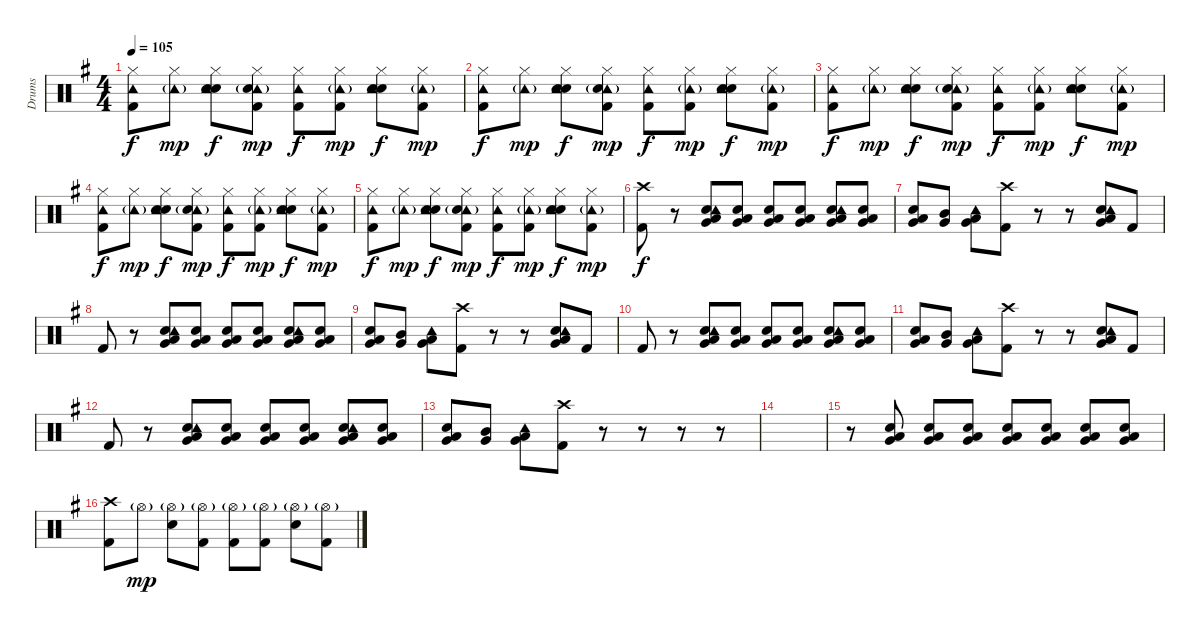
\track ("Drums" "Drums") {instrument percussion}
\staff {score}
\articulation defaults
\ts (4 4)
\tempo 105
\clef neutral
\ks g
("Hi-Hat (closed)" "Kick (hit) 2" "Tambourine (hit)").8{dy f} ("Hi-Hat (closed)" "Tambourine (hit)"{g}).8{dy mp} ("Hi-Hat (closed)" "Snare (hit) 2" "Tambourine (hit)" "Hand Clap (hit)").8{dy f} ("Hi-Hat (closed)" "Kick (hit) 2" "Tambourine (hit)"{g} "Hand Clap (hit)").8{dy mp} ("Hi-Hat (closed)" "Kick (hit) 2" "Tambourine (hit)").8{dy f} ("Hi-Hat (closed)" "Kick (hit) 2" "Tambourine (hit)"{g}).8{dy mp} ("Hi-Hat (closed)" "Snare (hit) 2" "Tambourine (hit)" "Hand Clap (hit)").8{dy f} ("Hi-Hat (closed)" "Kick (hit) 2" "Tambourine (hit)"{g}).8{dy mp} |
("Hi-Hat (closed)" "Kick (hit) 2" "Tambourine (hit)").8{dy f} ("Hi-Hat (closed)" "Tambourine (hit)"{g}).8{dy mp} ("Hi-Hat (closed)" "Snare (hit) 2" "Tambourine (hit)" "Hand Clap (hit)").8{dy f} ("Hi-Hat (closed)" "Kick (hit) 2" "Tambourine (hit)"{g} "Hand Clap (hit)").8{dy mp} ("Hi-Hat (closed)" "Kick (hit) 2" "Tambourine (hit)").8{dy f} ("Hi-Hat (closed)" "Kick (hit) 2" "Tambourine (hit)"{g}).8{dy mp} ("Hi-Hat (closed)" "Snare (hit) 2" "Tambourine (hit)" "Hand Clap (hit)").8{dy f} ("Hi-Hat (closed)" "Kick (hit) 2" "Tambourine (hit)"{g}).8{dy mp} |
("Hi-Hat (closed)" "Kick (hit) 2" "Tambourine (hit)").8{dy f} ("Hi-Hat (closed)" "Tambourine (hit)"{g}).8{dy mp} ("Hi-Hat (closed)" "Snare (hit) 2" "Tambourine (hit)" "Hand Clap (hit)").8{dy f} ("Hi-Hat (closed)" "Kick (hit) 2" "Tambourine (hit)"{g} "Hand Clap (hit)").8{dy mp} ("Hi-Hat (closed)" "Kick (hit) 2" "Tambourine (hit)").8{dy f} ("Hi-Hat (closed)" "Kick (hit) 2" "Tambourine (hit)"{g}).8{dy mp} ("Hi-Hat (closed)" "Snare (hit) 2" "Tambourine (hit)" "Hand Clap (hit)").8{dy f} ("Hi-Hat (closed)" "Kick (hit) 2" "Tambourine (hit)"{g}).8{dy mp} |
("Hi-Hat (closed)" "Kick (hit) 2" "Tambourine (hit)").8{dy f} ("Hi-Hat (closed)" "Tambourine (hit)"{g}).8{dy mp} ("Hi-Hat (closed)" "Snare (hit) 2" "Tambourine (hit)" "Hand Clap (hit)").8{dy f} ("Hi-Hat (closed)" "Kick (hit) 2" "Tambourine (hit)"{g} "Hand Clap (hit)").8{dy mp} ("Hi-Hat (closed)" "Kick (hit) 2" "Tambourine (hit)").8{dy f} ("Hi-Hat (closed)" "Kick (hit) 2" "Tambourine (hit)"{g}).8{dy mp} ("Hi-Hat (closed)" "Snare (hit) 2" "Tambourine (hit)" "Hand Clap (hit)").8{dy f} ("Hi-Hat (closed)" "Kick (hit) 2" "Tambourine (hit)"{g}).8{dy mp} |
("Hi-Hat (closed)" "Kick (hit) 2" "Tambourine (hit)").8{dy f} ("Hi-Hat (closed)" "Tambourine (hit)"{g}).8{dy mp} ("Hi-Hat (closed)" "Snare (hit) 2" "Tambourine (hit)" "Hand Clap (hit)").8{dy f} ("Hi-Hat (closed)" "Kick (hit) 2" "Tambourine (hit)"{g} "Hand Clap (hit)").8{dy mp} ("Hi-Hat (closed)" "Kick (hit) 2" "Tambourine (hit)").8{dy f} ("Hi-Hat (closed)" "Kick (hit) 2" "Tambourine (hit)"{g}).8{dy mp} ("Hi-Hat (closed)" "Snare (hit) 2" "Tambourine (hit)" "Hand Clap (hit)").8{dy f} ("Hi-Hat (closed)" "Kick (hit) 2" "Tambourine (hit)"{g}).8{dy mp} |
("Kick (hit) 2" "Crash high (hit)").8{dy f} r.8 ("Snare (hit) 2" "Low Tom (hit)" "Very Low Tom (hit)" "Tambourine (hit)").8 ("Snare (hit) 2" "Low Tom (hit)" "Very Low Tom (hit)").8 ("Snare (hit) 2" "Low Tom (hit)" "Very Low Tom (hit)").8 ("Snare (hit) 2" "Low Tom (hit)" "Very Low Tom (hit)").8 ("Snare (hit) 2" "Low Tom (hit)" "Very Low Tom (hit)" "Tambourine (hit)").8 ("Snare (hit) 2" "Low Tom (hit)" "Very Low Tom (hit)").8 |
("Snare (hit) 2" "Low Tom (hit)" "Very Low Tom (hit)").8 ("Mid Tom (hit)" "Very Low Tom (hit)").8 ("Low Tom (hit)" "Very Low Tom (hit)" "Tambourine (hit)").8 ("Kick (hit) 2" "Crash high (hit)").8 r.8 r.8 ("Snare (hit) 2" "Low Tom (hit)" "Very Low Tom (hit)" "Tambourine (hit)").8 "Kick (hit) 2".8 |
"Kick (hit) 2".8 r.8 ("Snare (hit) 2" "Low Tom (hit)" "Very Low Tom (hit)" "Tambourine (hit)").8 ("Snare (hit) 2" "Low Tom (hit)" "Very Low Tom (hit)").8 ("Snare (hit) 2" "Low Tom (hit)" "Very Low Tom (hit)").8 ("Snare (hit) 2" "Low Tom (hit)" "Very Low Tom (hit)").8 ("Snare (hit) 2" "Low Tom (hit)" "Very Low Tom (hit)" "Tambourine (hit)").8 ("Snare (hit) 2" "Low Tom (hit)" "Very Low Tom (hit)").8 |
("Snare (hit) 2" "Low Tom (hit)" "Very Low Tom (hit)").8 ("Mid Tom (hit)" "Very Low Tom (hit)").8 ("Low Tom (hit)" "Very Low Tom (hit)" "Tambourine (hit)").8 ("Kick (hit) 2" "Crash high (hit)").8 r.8 r.8 ("Snare (hit) 2" "Low Tom (hit)" "Very Low Tom (hit)" "Tambourine (hit)").8 "Kick (hit) 2".8 |
"Kick (hit) 2".8 r.8 ("Snare (hit) 2" "Low Tom (hit)" "Very Low Tom (hit)" "Tambourine (hit)").8 ("Snare (hit) 2" "Low Tom (hit)" "Very Low Tom (hit)").8 ("Snare (hit) 2" "Low Tom (hit)" "Very Low Tom (hit)").8 ("Snare (hit) 2" "Low Tom (hit)" "Very Low Tom (hit)").8 ("Snare (hit) 2" "Low Tom (hit)" "Very Low Tom (hit)" "Tambourine (hit)").8 ("Snare (hit) 2" "Low Tom (hit)" "Very Low Tom (hit)").8 |
("Snare (hit) 2" "Low Tom (hit)" "Very Low Tom (hit)").8 ("Mid Tom (hit)" "Very Low Tom (hit)").8 ("Low Tom (hit)" "Very Low Tom (hit)" "Tambourine (hit)").8 ("Kick (hit) 2" "Crash high (hit)").8 r.8 r.8 ("Snare (hit) 2" "Low Tom (hit)" "Very Low Tom (hit)" "Tambourine (hit)").8 "Kick (hit) 2".8 |
"Kick (hit) 2".8 r.8 ("Snare (hit) 2" "Low Tom (hit)" "Very Low Tom (hit)" "Tambourine (hit)").8 ("Snare (hit) 2" "Low Tom (hit)" "Very Low Tom (hit)").8 ("Snare (hit) 2" "Low Tom (hit)" "Very Low Tom (hit)").8 ("Snare (hit) 2" "Low Tom (hit)" "Very Low Tom (hit)").8 ("Snare (hit) 2" "Low Tom (hit)" "Very Low Tom (hit)" "Tambourine (hit)").8 ("Snare (hit) 2" "Low Tom (hit)" "Very Low Tom (hit)").8 |
("Snare (hit) 2" "Low Tom (hit)" "Very Low Tom (hit)").8 ("Mid Tom (hit)" "Very Low Tom (hit)").8 ("Low Tom (hit)" "Very Low Tom (hit)" "Tambourine (hit)").8 ("Kick (hit) 2" "Crash high (hit)").8 r.8 r.8 r.8 r.8 |
|
r.8 ("Snare (hit) 2" "Low Tom (hit)" "Very Low Tom (hit)").8 ("Snare (hit) 2" "Low Tom (hit)" "Very Low Tom (hit)").8 ("Snare (hit) 2" "Low Tom (hit)" "Very Low Tom (hit)").8 ("Snare (hit) 2" "Low Tom (hit)" "Very Low Tom (hit)").8 ("Snare (hit) 2" "Low Tom (hit)" "Very Low Tom (hit)").8 ("Snare (hit) 2" "Low Tom (hit)" "Very Low Tom (hit)").8 ("Snare (hit) 2" "Low Tom (hit)" "Very Low Tom (hit)").8 |
("Kick (hit) 2" "Crash high (hit)").8 "Hi-Hat (open)"{g}.8{dy mp} ("Hi-Hat (open)"{g} "Snare (hit) 2").8 ("Hi-Hat (open)"{g} "Kick (hit) 2").8 ("Hi-Hat (open)"{g} "Kick (hit) 2").8 ("Hi-Hat (open)"{g} "Kick (hit) 2").8 ("Hi-Hat (open)"{g} "Snare (hit) 2").8 ("Hi-Hat (open)"{g} "Kick (hit) 2").8
